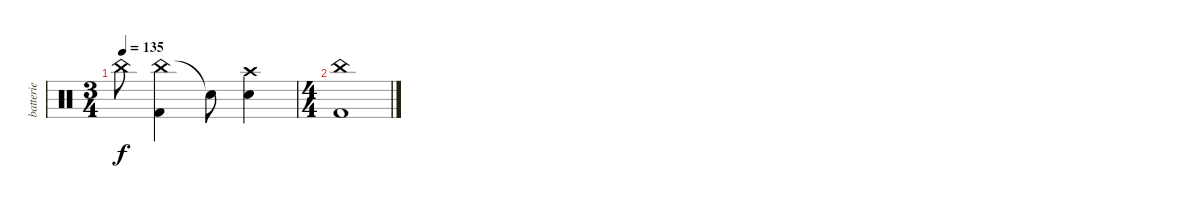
\track ("batterie" "batterie") {instrument percussion}
\staff {score}
\articulation defaults
\ts (3 4)
\tempo 135
\clef neutral
\ks c "China (hit)"{t}.8{dy f}
("China (hit)" "Kick (hit) 2").4 "Snare (hit)"{t}.8 ("Crash high (hit)" "Snare (hit) 2").4 |
\ts (4 4)
("China (hit)" "Kick (hit) 2").1
